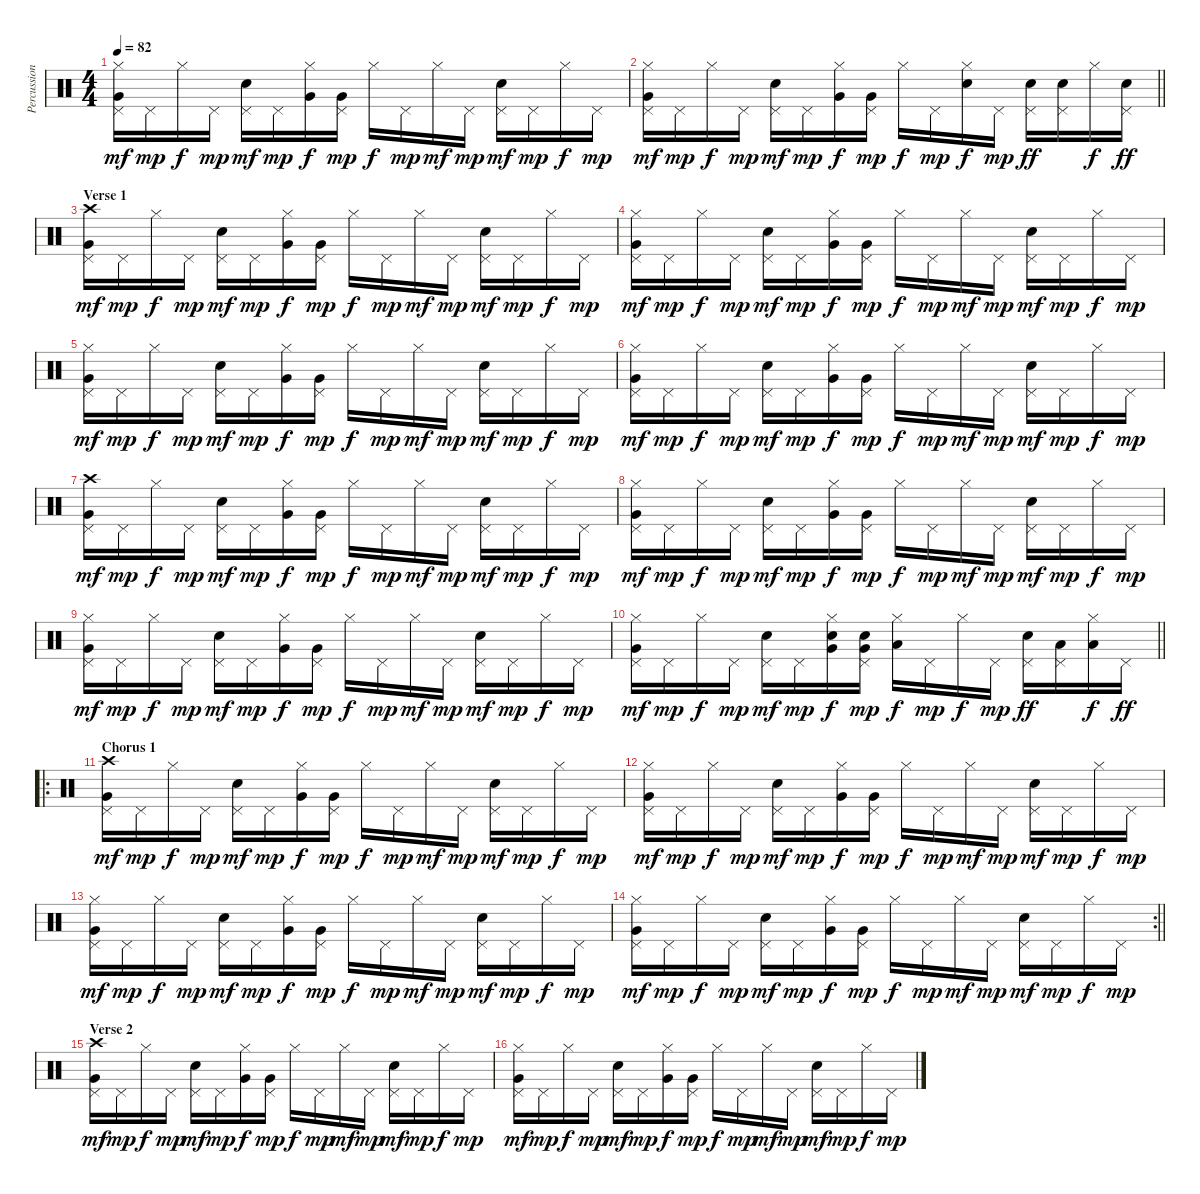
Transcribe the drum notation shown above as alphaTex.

\track ("Percussion" "Percussion") {instrument percussion}
\staff {score}
\articulation defaults
\ts (4 4)
\tempo 82
\clef neutral
\ks c
("Hi-Hat (closed)" "Very Low Tom (hit)" "Pedal Hi-Hat (hit)").16{dy mf} "Pedal Hi-Hat (hit)".16{dy mp} "Hi-Hat (closed)".16{dy f} "Pedal Hi-Hat (hit)".16{dy mp} ("Electric Snare (hit)" "Pedal Hi-Hat (hit)").16{dy mf} "Pedal Hi-Hat (hit)".16{dy mp} ("Hi-Hat (closed)" "Very Low Tom (hit)").16{dy f} ("Very Low Tom (hit)" "Pedal Hi-Hat (hit)").16{dy mp} "Hi-Hat (closed)".16{dy f} "Pedal Hi-Hat (hit)".16{dy mp} "Hi-Hat (closed)".16{dy mf} "Pedal Hi-Hat (hit)".16{dy mp} ("Electric Snare (hit)" "Pedal Hi-Hat (hit)").16{dy mf} "Pedal Hi-Hat (hit)".16{dy mp} "Hi-Hat (closed)".16{dy f} "Pedal Hi-Hat (hit)".16{dy mp} |
\barLineRight lightlight
("Hi-Hat (closed)" "Very Low Tom (hit)" "Pedal Hi-Hat (hit)").16{dy mf} "Pedal Hi-Hat (hit)".16{dy mp} "Hi-Hat (closed)".16{dy f} "Pedal Hi-Hat (hit)".16{dy mp} ("Electric Snare (hit)" "Pedal Hi-Hat (hit)").16{dy mf} "Pedal Hi-Hat (hit)".16{dy mp} ("Hi-Hat (closed)" "Very Low Tom (hit)").16{dy f} ("Very Low Tom (hit)" "Pedal Hi-Hat (hit)").16{dy mp} "Hi-Hat (closed)".16{dy f} "Pedal Hi-Hat (hit)".16{dy mp} ("Hi-Hat (closed)" "Electric Snare (hit)").16{dy f} "Pedal Hi-Hat (hit)".16{dy mp} ("Electric Snare (hit)" "Pedal Hi-Hat (hit)").16{dy ff} ("Electric Snare (hit)" "Pedal Hi-Hat (hit)").16 "Hi-Hat (closed)".16{dy f} ("Electric Snare (hit)" "Pedal Hi-Hat (hit)").16{dy ff} |
\section ("" "Verse 1")
("Crash high (hit)" "Very Low Tom (hit)" "Pedal Hi-Hat (hit)").16{dy mf} "Pedal Hi-Hat (hit)".16{dy mp} "Hi-Hat (closed)".16{dy f} "Pedal Hi-Hat (hit)".16{dy mp} ("Electric Snare (hit)" "Pedal Hi-Hat (hit)").16{dy mf} "Pedal Hi-Hat (hit)".16{dy mp} ("Hi-Hat (closed)" "Very Low Tom (hit)").16{dy f} ("Very Low Tom (hit)" "Pedal Hi-Hat (hit)").16{dy mp} "Hi-Hat (closed)".16{dy f} "Pedal Hi-Hat (hit)".16{dy mp} "Hi-Hat (closed)".16{dy mf} "Pedal Hi-Hat (hit)".16{dy mp} ("Electric Snare (hit)" "Pedal Hi-Hat (hit)").16{dy mf} "Pedal Hi-Hat (hit)".16{dy mp} "Hi-Hat (closed)".16{dy f} "Pedal Hi-Hat (hit)".16{dy mp} |
("Hi-Hat (closed)" "Very Low Tom (hit)" "Pedal Hi-Hat (hit)").16{dy mf} "Pedal Hi-Hat (hit)".16{dy mp} "Hi-Hat (closed)".16{dy f} "Pedal Hi-Hat (hit)".16{dy mp} ("Electric Snare (hit)" "Pedal Hi-Hat (hit)").16{dy mf} "Pedal Hi-Hat (hit)".16{dy mp} ("Hi-Hat (closed)" "Very Low Tom (hit)").16{dy f} ("Very Low Tom (hit)" "Pedal Hi-Hat (hit)").16{dy mp} "Hi-Hat (closed)".16{dy f} "Pedal Hi-Hat (hit)".16{dy mp} "Hi-Hat (closed)".16{dy mf} "Pedal Hi-Hat (hit)".16{dy mp} ("Electric Snare (hit)" "Pedal Hi-Hat (hit)").16{dy mf} "Pedal Hi-Hat (hit)".16{dy mp} "Hi-Hat (closed)".16{dy f} "Pedal Hi-Hat (hit)".16{dy mp} |
("Hi-Hat (closed)" "Very Low Tom (hit)" "Pedal Hi-Hat (hit)").16{dy mf} "Pedal Hi-Hat (hit)".16{dy mp} "Hi-Hat (closed)".16{dy f} "Pedal Hi-Hat (hit)".16{dy mp} ("Electric Snare (hit)" "Pedal Hi-Hat (hit)").16{dy mf} "Pedal Hi-Hat (hit)".16{dy mp} ("Hi-Hat (closed)" "Very Low Tom (hit)").16{dy f} ("Very Low Tom (hit)" "Pedal Hi-Hat (hit)").16{dy mp} "Hi-Hat (closed)".16{dy f} "Pedal Hi-Hat (hit)".16{dy mp} "Hi-Hat (closed)".16{dy mf} "Pedal Hi-Hat (hit)".16{dy mp} ("Electric Snare (hit)" "Pedal Hi-Hat (hit)").16{dy mf} "Pedal Hi-Hat (hit)".16{dy mp} "Hi-Hat (closed)".16{dy f} "Pedal Hi-Hat (hit)".16{dy mp} |
("Hi-Hat (closed)" "Very Low Tom (hit)" "Pedal Hi-Hat (hit)").16{dy mf} "Pedal Hi-Hat (hit)".16{dy mp} "Hi-Hat (closed)".16{dy f} "Pedal Hi-Hat (hit)".16{dy mp} ("Electric Snare (hit)" "Pedal Hi-Hat (hit)").16{dy mf} "Pedal Hi-Hat (hit)".16{dy mp} ("Hi-Hat (closed)" "Very Low Tom (hit)").16{dy f} ("Very Low Tom (hit)" "Pedal Hi-Hat (hit)").16{dy mp} "Hi-Hat (closed)".16{dy f} "Pedal Hi-Hat (hit)".16{dy mp} "Hi-Hat (closed)".16{dy mf} "Pedal Hi-Hat (hit)".16{dy mp} ("Electric Snare (hit)" "Pedal Hi-Hat (hit)").16{dy mf} "Pedal Hi-Hat (hit)".16{dy mp} "Hi-Hat (closed)".16{dy f} "Pedal Hi-Hat (hit)".16{dy mp} |
("Crash high (hit)" "Very Low Tom (hit)" "Pedal Hi-Hat (hit)").16{dy mf} "Pedal Hi-Hat (hit)".16{dy mp} "Hi-Hat (closed)".16{dy f} "Pedal Hi-Hat (hit)".16{dy mp} ("Electric Snare (hit)" "Pedal Hi-Hat (hit)").16{dy mf} "Pedal Hi-Hat (hit)".16{dy mp} ("Hi-Hat (closed)" "Very Low Tom (hit)").16{dy f} ("Very Low Tom (hit)" "Pedal Hi-Hat (hit)").16{dy mp} "Hi-Hat (closed)".16{dy f} "Pedal Hi-Hat (hit)".16{dy mp} "Hi-Hat (closed)".16{dy mf} "Pedal Hi-Hat (hit)".16{dy mp} ("Electric Snare (hit)" "Pedal Hi-Hat (hit)").16{dy mf} "Pedal Hi-Hat (hit)".16{dy mp} "Hi-Hat (closed)".16{dy f} "Pedal Hi-Hat (hit)".16{dy mp} |
("Hi-Hat (closed)" "Very Low Tom (hit)" "Pedal Hi-Hat (hit)").16{dy mf} "Pedal Hi-Hat (hit)".16{dy mp} "Hi-Hat (closed)".16{dy f} "Pedal Hi-Hat (hit)".16{dy mp} ("Electric Snare (hit)" "Pedal Hi-Hat (hit)").16{dy mf} "Pedal Hi-Hat (hit)".16{dy mp} ("Hi-Hat (closed)" "Very Low Tom (hit)").16{dy f} ("Very Low Tom (hit)" "Pedal Hi-Hat (hit)").16{dy mp} "Hi-Hat (closed)".16{dy f} "Pedal Hi-Hat (hit)".16{dy mp} "Hi-Hat (closed)".16{dy mf} "Pedal Hi-Hat (hit)".16{dy mp} ("Electric Snare (hit)" "Pedal Hi-Hat (hit)").16{dy mf} "Pedal Hi-Hat (hit)".16{dy mp} "Hi-Hat (closed)".16{dy f} "Pedal Hi-Hat (hit)".16{dy mp} |
("Hi-Hat (closed)" "Very Low Tom (hit)" "Pedal Hi-Hat (hit)").16{dy mf} "Pedal Hi-Hat (hit)".16{dy mp} "Hi-Hat (closed)".16{dy f} "Pedal Hi-Hat (hit)".16{dy mp} ("Electric Snare (hit)" "Pedal Hi-Hat (hit)").16{dy mf} "Pedal Hi-Hat (hit)".16{dy mp} ("Hi-Hat (closed)" "Very Low Tom (hit)").16{dy f} ("Very Low Tom (hit)" "Pedal Hi-Hat (hit)").16{dy mp} "Hi-Hat (closed)".16{dy f} "Pedal Hi-Hat (hit)".16{dy mp} "Hi-Hat (closed)".16{dy mf} "Pedal Hi-Hat (hit)".16{dy mp} ("Electric Snare (hit)" "Pedal Hi-Hat (hit)").16{dy mf} "Pedal Hi-Hat (hit)".16{dy mp} "Hi-Hat (closed)".16{dy f} "Pedal Hi-Hat (hit)".16{dy mp} |
\barLineRight lightlight
("Hi-Hat (closed)" "Very Low Tom (hit)" "Pedal Hi-Hat (hit)").16{dy mf} "Pedal Hi-Hat (hit)".16{dy mp} "Hi-Hat (closed)".16{dy f} "Pedal Hi-Hat (hit)".16{dy mp} ("Electric Snare (hit)" "Pedal Hi-Hat (hit)").16{dy mf} "Pedal Hi-Hat (hit)".16{dy mp} ("Hi-Hat (closed)" "Electric Snare (hit)" "Very Low Tom (hit)").16{dy f} ("Electric Snare (hit)" "Very Low Tom (hit)" "Pedal Hi-Hat (hit)").16{dy mp} ("Hi-Hat (closed)" "Low Tom (hit)").16{dy f} "Pedal Hi-Hat (hit)".16{dy mp} "Hi-Hat (closed)".16{dy f} "Pedal Hi-Hat (hit)".16{dy mp} ("Electric Snare (hit)" "Pedal Hi-Hat (hit)").16{dy ff} ("Low Tom (hit)" "Pedal Hi-Hat (hit)").16 ("Hi-Hat (closed)" "Low Tom (hit)").16{dy f} "Pedal Hi-Hat (hit)".16{dy ff} |
\ro
\section ("" "Chorus 1")
("Crash high (hit)" "Very Low Tom (hit)" "Pedal Hi-Hat (hit)").16{dy mf} "Pedal Hi-Hat (hit)".16{dy mp} "Hi-Hat (closed)".16{dy f} "Pedal Hi-Hat (hit)".16{dy mp} ("Electric Snare (hit)" "Pedal Hi-Hat (hit)").16{dy mf} "Pedal Hi-Hat (hit)".16{dy mp} ("Hi-Hat (closed)" "Very Low Tom (hit)").16{dy f} ("Very Low Tom (hit)" "Pedal Hi-Hat (hit)").16{dy mp} "Hi-Hat (closed)".16{dy f} "Pedal Hi-Hat (hit)".16{dy mp} "Hi-Hat (closed)".16{dy mf} "Pedal Hi-Hat (hit)".16{dy mp} ("Electric Snare (hit)" "Pedal Hi-Hat (hit)").16{dy mf} "Pedal Hi-Hat (hit)".16{dy mp} "Hi-Hat (closed)".16{dy f} "Pedal Hi-Hat (hit)".16{dy mp} |
("Hi-Hat (closed)" "Very Low Tom (hit)" "Pedal Hi-Hat (hit)").16{dy mf} "Pedal Hi-Hat (hit)".16{dy mp} "Hi-Hat (closed)".16{dy f} "Pedal Hi-Hat (hit)".16{dy mp} ("Electric Snare (hit)" "Pedal Hi-Hat (hit)").16{dy mf} "Pedal Hi-Hat (hit)".16{dy mp} ("Hi-Hat (closed)" "Very Low Tom (hit)").16{dy f} ("Very Low Tom (hit)" "Pedal Hi-Hat (hit)").16{dy mp} "Hi-Hat (closed)".16{dy f} "Pedal Hi-Hat (hit)".16{dy mp} "Hi-Hat (closed)".16{dy mf} "Pedal Hi-Hat (hit)".16{dy mp} ("Electric Snare (hit)" "Pedal Hi-Hat (hit)").16{dy mf} "Pedal Hi-Hat (hit)".16{dy mp} "Hi-Hat (closed)".16{dy f} "Pedal Hi-Hat (hit)".16{dy mp} |
("Hi-Hat (closed)" "Very Low Tom (hit)" "Pedal Hi-Hat (hit)").16{dy mf} "Pedal Hi-Hat (hit)".16{dy mp} "Hi-Hat (closed)".16{dy f} "Pedal Hi-Hat (hit)".16{dy mp} ("Electric Snare (hit)" "Pedal Hi-Hat (hit)").16{dy mf} "Pedal Hi-Hat (hit)".16{dy mp} ("Hi-Hat (closed)" "Very Low Tom (hit)").16{dy f} ("Very Low Tom (hit)" "Pedal Hi-Hat (hit)").16{dy mp} "Hi-Hat (closed)".16{dy f} "Pedal Hi-Hat (hit)".16{dy mp} "Hi-Hat (closed)".16{dy mf} "Pedal Hi-Hat (hit)".16{dy mp} ("Electric Snare (hit)" "Pedal Hi-Hat (hit)").16{dy mf} "Pedal Hi-Hat (hit)".16{dy mp} "Hi-Hat (closed)".16{dy f} "Pedal Hi-Hat (hit)".16{dy mp} |
\rc 2
\barLineRight lightlight
("Hi-Hat (closed)" "Very Low Tom (hit)" "Pedal Hi-Hat (hit)").16{dy mf} "Pedal Hi-Hat (hit)".16{dy mp} "Hi-Hat (closed)".16{dy f} "Pedal Hi-Hat (hit)".16{dy mp} ("Electric Snare (hit)" "Pedal Hi-Hat (hit)").16{dy mf} "Pedal Hi-Hat (hit)".16{dy mp} ("Hi-Hat (closed)" "Very Low Tom (hit)").16{dy f} ("Very Low Tom (hit)" "Pedal Hi-Hat (hit)").16{dy mp} "Hi-Hat (closed)".16{dy f} "Pedal Hi-Hat (hit)".16{dy mp} "Hi-Hat (closed)".16{dy mf} "Pedal Hi-Hat (hit)".16{dy mp} ("Electric Snare (hit)" "Pedal Hi-Hat (hit)").16{dy mf} "Pedal Hi-Hat (hit)".16{dy mp} "Hi-Hat (closed)".16{dy f} "Pedal Hi-Hat (hit)".16{dy mp} |
\section ("" "Verse 2")
("Crash high (hit)" "Very Low Tom (hit)" "Pedal Hi-Hat (hit)").16{dy mf} "Pedal Hi-Hat (hit)".16{dy mp} "Hi-Hat (closed)".16{dy f} "Pedal Hi-Hat (hit)".16{dy mp} ("Electric Snare (hit)" "Pedal Hi-Hat (hit)").16{dy mf} "Pedal Hi-Hat (hit)".16{dy mp} ("Hi-Hat (closed)" "Very Low Tom (hit)").16{dy f} ("Very Low Tom (hit)" "Pedal Hi-Hat (hit)").16{dy mp} "Hi-Hat (closed)".16{dy f} "Pedal Hi-Hat (hit)".16{dy mp} "Hi-Hat (closed)".16{dy mf} "Pedal Hi-Hat (hit)".16{dy mp} ("Electric Snare (hit)" "Pedal Hi-Hat (hit)").16{dy mf} "Pedal Hi-Hat (hit)".16{dy mp} "Hi-Hat (closed)".16{dy f} "Pedal Hi-Hat (hit)".16{dy mp} |
("Hi-Hat (closed)" "Very Low Tom (hit)" "Pedal Hi-Hat (hit)").16{dy mf} "Pedal Hi-Hat (hit)".16{dy mp} "Hi-Hat (closed)".16{dy f} "Pedal Hi-Hat (hit)".16{dy mp} ("Electric Snare (hit)" "Pedal Hi-Hat (hit)").16{dy mf} "Pedal Hi-Hat (hit)".16{dy mp} ("Hi-Hat (closed)" "Very Low Tom (hit)").16{dy f} ("Very Low Tom (hit)" "Pedal Hi-Hat (hit)").16{dy mp} "Hi-Hat (closed)".16{dy f} "Pedal Hi-Hat (hit)".16{dy mp} "Hi-Hat (closed)".16{dy mf} "Pedal Hi-Hat (hit)".16{dy mp} ("Electric Snare (hit)" "Pedal Hi-Hat (hit)").16{dy mf} "Pedal Hi-Hat (hit)".16{dy mp} "Hi-Hat (closed)".16{dy f} "Pedal Hi-Hat (hit)".16{dy mp}
